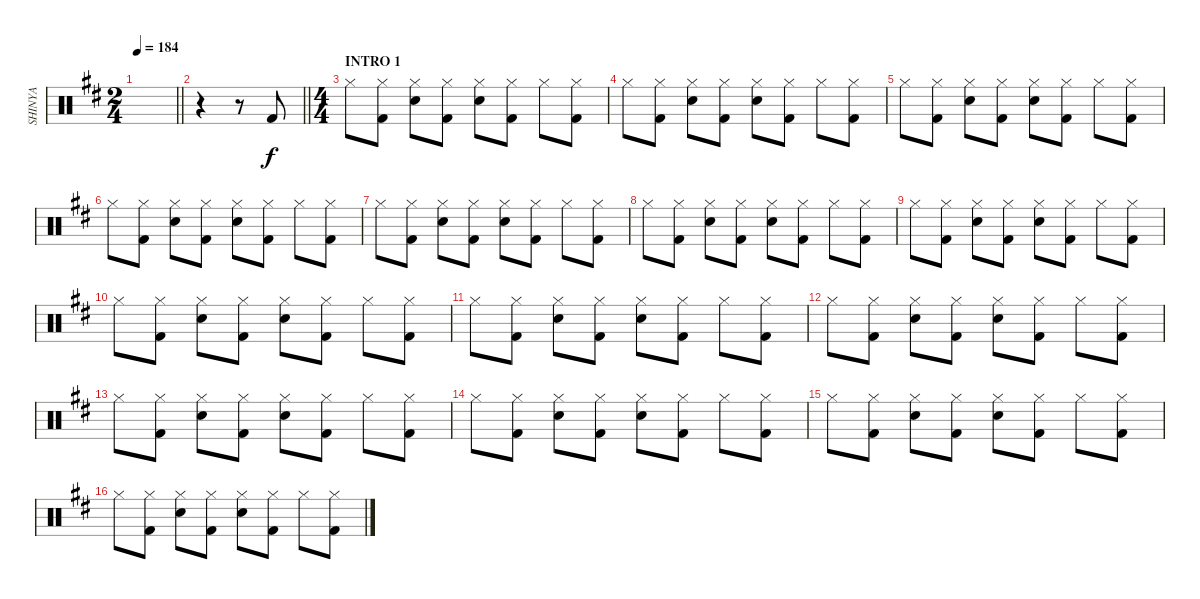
\track ("SHINYA" "SHINYA") {instrument percussion}
\staff {score}
\articulation defaults
\ts (2 4)
\tempo 184
\clef neutral
\barLineRight lightlight
\ks bminor
|
\barLineRight lightlight
r.4 r.8 "Kick (hit) 2".8 |
\ts (4 4)
\section ("" "INTRO 1")
"Hi-Hat (closed)".8 ("Hi-Hat (closed)" "Kick (hit) 2").8 ("Hi-Hat (closed)" "Snare (hit) 2").8 ("Hi-Hat (closed)" "Kick (hit) 2").8 ("Hi-Hat (closed)" "Snare (hit) 2").8 ("Hi-Hat (closed)" "Kick (hit) 2").8 "Hi-Hat (closed)".8 ("Hi-Hat (closed)" "Kick (hit) 2").8 |
"Hi-Hat (closed)".8 ("Hi-Hat (closed)" "Kick (hit) 2").8 ("Hi-Hat (closed)" "Snare (hit) 2").8 ("Hi-Hat (closed)" "Kick (hit) 2").8 ("Hi-Hat (closed)" "Snare (hit) 2").8 ("Hi-Hat (closed)" "Kick (hit) 2").8 "Hi-Hat (closed)".8 ("Hi-Hat (closed)" "Kick (hit) 2").8 |
"Hi-Hat (closed)".8 ("Hi-Hat (closed)" "Kick (hit) 2").8 ("Hi-Hat (closed)" "Snare (hit) 2").8 ("Hi-Hat (closed)" "Kick (hit) 2").8 ("Hi-Hat (closed)" "Snare (hit) 2").8 ("Hi-Hat (closed)" "Kick (hit) 2").8 "Hi-Hat (closed)".8 ("Hi-Hat (closed)" "Kick (hit) 2").8 |
"Hi-Hat (closed)".8 ("Hi-Hat (closed)" "Kick (hit) 2").8 ("Hi-Hat (closed)" "Snare (hit) 2").8 ("Hi-Hat (closed)" "Kick (hit) 2").8 ("Hi-Hat (closed)" "Snare (hit) 2").8 ("Hi-Hat (closed)" "Kick (hit) 2").8 "Hi-Hat (closed)".8 ("Hi-Hat (closed)" "Kick (hit) 2").8 |
"Hi-Hat (closed)".8 ("Hi-Hat (closed)" "Kick (hit) 2").8 ("Hi-Hat (closed)" "Snare (hit) 2").8 ("Hi-Hat (closed)" "Kick (hit) 2").8 ("Hi-Hat (closed)" "Snare (hit) 2").8 ("Hi-Hat (closed)" "Kick (hit) 2").8 "Hi-Hat (closed)".8 ("Hi-Hat (closed)" "Kick (hit) 2").8 |
"Hi-Hat (closed)".8 ("Hi-Hat (closed)" "Kick (hit) 2").8 ("Hi-Hat (closed)" "Snare (hit) 2").8 ("Hi-Hat (closed)" "Kick (hit) 2").8 ("Hi-Hat (closed)" "Snare (hit) 2").8 ("Hi-Hat (closed)" "Kick (hit) 2").8 "Hi-Hat (closed)".8 ("Hi-Hat (closed)" "Kick (hit) 2").8 |
"Hi-Hat (closed)".8 ("Hi-Hat (closed)" "Kick (hit) 2").8 ("Hi-Hat (closed)" "Snare (hit) 2").8 ("Hi-Hat (closed)" "Kick (hit) 2").8 ("Hi-Hat (closed)" "Snare (hit) 2").8 ("Hi-Hat (closed)" "Kick (hit) 2").8 "Hi-Hat (closed)".8 ("Hi-Hat (closed)" "Kick (hit) 2").8 |
"Hi-Hat (closed)".8 ("Hi-Hat (closed)" "Kick (hit) 2").8 ("Hi-Hat (closed)" "Snare (hit) 2").8 ("Hi-Hat (closed)" "Kick (hit) 2").8 ("Hi-Hat (closed)" "Snare (hit) 2").8 ("Hi-Hat (closed)" "Kick (hit) 2").8 "Hi-Hat (closed)".8 ("Hi-Hat (closed)" "Kick (hit) 2").8 |
"Hi-Hat (closed)".8 ("Hi-Hat (closed)" "Kick (hit) 2").8 ("Hi-Hat (closed)" "Snare (hit) 2").8 ("Hi-Hat (closed)" "Kick (hit) 2").8 ("Hi-Hat (closed)" "Snare (hit) 2").8 ("Hi-Hat (closed)" "Kick (hit) 2").8 "Hi-Hat (closed)".8 ("Hi-Hat (closed)" "Kick (hit) 2").8 |
"Hi-Hat (closed)".8 ("Hi-Hat (closed)" "Kick (hit) 2").8 ("Hi-Hat (closed)" "Snare (hit) 2").8 ("Hi-Hat (closed)" "Kick (hit) 2").8 ("Hi-Hat (closed)" "Snare (hit) 2").8 ("Hi-Hat (closed)" "Kick (hit) 2").8 "Hi-Hat (closed)".8 ("Hi-Hat (closed)" "Kick (hit) 2").8 |
"Hi-Hat (closed)".8 ("Hi-Hat (closed)" "Kick (hit) 2").8 ("Hi-Hat (closed)" "Snare (hit) 2").8 ("Hi-Hat (closed)" "Kick (hit) 2").8 ("Hi-Hat (closed)" "Snare (hit) 2").8 ("Hi-Hat (closed)" "Kick (hit) 2").8 "Hi-Hat (closed)".8 ("Hi-Hat (closed)" "Kick (hit) 2").8 |
"Hi-Hat (closed)".8 ("Hi-Hat (closed)" "Kick (hit) 2").8 ("Hi-Hat (closed)" "Snare (hit) 2").8 ("Hi-Hat (closed)" "Kick (hit) 2").8 ("Hi-Hat (closed)" "Snare (hit) 2").8 ("Hi-Hat (closed)" "Kick (hit) 2").8 "Hi-Hat (closed)".8 ("Hi-Hat (closed)" "Kick (hit) 2").8 |
"Hi-Hat (closed)".8 ("Hi-Hat (closed)" "Kick (hit) 2").8 ("Hi-Hat (closed)" "Snare (hit) 2").8 ("Hi-Hat (closed)" "Kick (hit) 2").8 ("Hi-Hat (closed)" "Snare (hit) 2").8 ("Hi-Hat (closed)" "Kick (hit) 2").8 "Hi-Hat (closed)".8 ("Hi-Hat (closed)" "Kick (hit) 2").8 |
"Hi-Hat (closed)".8 ("Hi-Hat (closed)" "Kick (hit) 2").8 ("Hi-Hat (closed)" "Snare (hit) 2").8 ("Hi-Hat (closed)" "Kick (hit) 2").8 ("Hi-Hat (closed)" "Snare (hit) 2").8 ("Hi-Hat (closed)" "Kick (hit) 2").8 "Hi-Hat (closed)".8 ("Hi-Hat (closed)" "Kick (hit) 2").8
